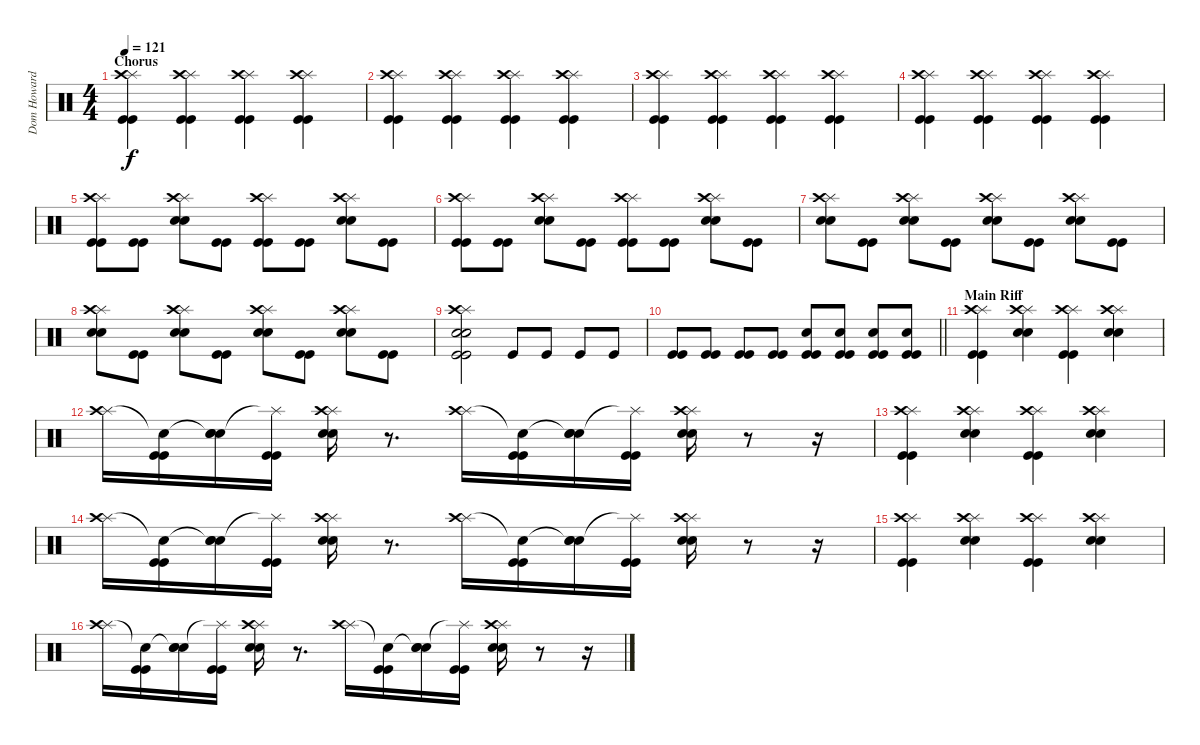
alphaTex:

\track ("Dom Howard - Drums" "Dom Howard") {instrument percussion}
\staff {score}
\articulation defaults
\ts (4 4)
\section ("" "Chorus")
\tempo 121
\clef neutral
\ks c
("Splash (hit)" "Crash high (hit)" "Kick (hit)" "Kick (hit)").4{dy f} ("Splash (hit)" "Crash high (hit)" "Kick (hit)" "Kick (hit)").4 ("Splash (hit)" "Crash high (hit)" "Kick (hit)" "Kick (hit)").4 ("Splash (hit)" "Crash high (hit)" "Kick (hit)" "Kick (hit)").4 |
("Splash (hit)" "Crash high (hit)" "Kick (hit)" "Kick (hit)").4 ("Splash (hit)" "Crash high (hit)" "Kick (hit)" "Kick (hit)").4 ("Splash (hit)" "Crash high (hit)" "Kick (hit)" "Kick (hit)").4 ("Splash (hit)" "Crash high (hit)" "Kick (hit)" "Kick (hit)").4 |
("Splash (hit)" "Crash high (hit)" "Kick (hit)" "Kick (hit)").4 ("Splash (hit)" "Crash high (hit)" "Kick (hit)" "Kick (hit)").4 ("Splash (hit)" "Crash high (hit)" "Kick (hit)" "Kick (hit)").4 ("Splash (hit)" "Crash high (hit)" "Kick (hit)" "Kick (hit)").4 |
("Splash (hit)" "Crash high (hit)" "Kick (hit)" "Kick (hit)").4 ("Splash (hit)" "Crash high (hit)" "Kick (hit)" "Kick (hit)").4 ("Splash (hit)" "Crash high (hit)" "Kick (hit)" "Kick (hit)").4 ("Splash (hit)" "Crash high (hit)" "Kick (hit)" "Kick (hit)").4 |
("Splash (hit)" "Crash high (hit)" "Kick (hit)" "Kick (hit)").8 ("Kick (hit)" "Kick (hit)").8 ("Splash (hit)" "Crash high (hit)" "Electric Snare (hit)" "Electric Snare (hit)").8 ("Kick (hit)" "Kick (hit)").8 ("Splash (hit)" "Crash high (hit)" "Kick (hit)" "Kick (hit)").8 ("Kick (hit)" "Kick (hit)").8 ("Splash (hit)" "Crash high (hit)" "Electric Snare (hit)" "Electric Snare (hit)").8 ("Kick (hit)" "Kick (hit)").8 |
("Splash (hit)" "Crash high (hit)" "Kick (hit)" "Kick (hit)").8 ("Kick (hit)" "Kick (hit)").8 ("Splash (hit)" "Crash high (hit)" "Electric Snare (hit)" "Electric Snare (hit)").8 ("Kick (hit)" "Kick (hit)").8 ("Splash (hit)" "Crash high (hit)" "Kick (hit)" "Kick (hit)").8 ("Kick (hit)" "Kick (hit)").8 ("Splash (hit)" "Crash high (hit)" "Electric Snare (hit)" "Electric Snare (hit)").8 ("Kick (hit)" "Kick (hit)").8 |
("Splash (hit)" "Crash high (hit)" "Electric Snare (hit)" "Electric Snare (hit)").8 ("Kick (hit)" "Kick (hit)").8 ("Splash (hit)" "Crash high (hit)" "Electric Snare (hit)" "Electric Snare (hit)").8 ("Kick (hit)" "Kick (hit)").8 ("Splash (hit)" "Crash high (hit)" "Electric Snare (hit)" "Electric Snare (hit)").8 ("Kick (hit)" "Kick (hit)").8 ("Splash (hit)" "Crash high (hit)" "Electric Snare (hit)" "Electric Snare (hit)").8 ("Kick (hit)" "Kick (hit)").8 |
("Splash (hit)" "Crash high (hit)" "Electric Snare (hit)" "Electric Snare (hit)").8 ("Kick (hit)" "Kick (hit)").8 ("Splash (hit)" "Crash high (hit)" "Electric Snare (hit)" "Electric Snare (hit)").8 ("Kick (hit)" "Kick (hit)").8 ("Splash (hit)" "Crash high (hit)" "Electric Snare (hit)" "Electric Snare (hit)").8 ("Kick (hit)" "Kick (hit)").8 ("Splash (hit)" "Crash high (hit)" "Electric Snare (hit)" "Electric Snare (hit)").8 ("Kick (hit)" "Kick (hit)").8 |
("Splash (hit)" "Crash high (hit)" "Electric Snare (hit)" "Electric Snare (hit)" "Kick (hit)" "Kick (hit)").2 "Kick (hit)".8 "Kick (hit)".8 "Kick (hit)".8 "Kick (hit)".8 |
\barLineRight lightlight
("Kick (hit)" "Kick (hit)").8 ("Kick (hit)" "Kick (hit)").8 ("Kick (hit)" "Kick (hit)").8 ("Kick (hit)" "Kick (hit)").8 ("Electric Snare (hit)" "Kick (hit)" "Kick (hit)").8 ("Electric Snare (hit)" "Kick (hit)" "Kick (hit)").8 ("Electric Snare (hit)" "Kick (hit)" "Kick (hit)").8 ("Electric Snare (hit)" "Kick (hit)" "Kick (hit)").8 |
\section ("" "Main Riff")
("Splash (hit)" "Crash high (hit)" "Kick (hit)" "Kick (hit)").4 ("Splash (hit)" "Crash high (hit)" "Electric Snare (hit)" "Electric Snare (hit)").4 ("Splash (hit)" "Crash high (hit)" "Kick (hit)" "Kick (hit)").4 ("Splash (hit)" "Crash high (hit)" "Electric Snare (hit)" "Electric Snare (hit)").4 |
("Splash (hit)" "Crash high (hit)").16 ("Snare (hit)"{t} "Kick (hit)" "Kick (hit)").16 ("Snare (hit)"{t} "Electric Snare (hit)" "Electric Snare (hit)").16 ("Splash (hit)"{t} "Kick (hit)" "Kick (hit)").16 ("Splash (hit)" "Crash high (hit)" "Electric Snare (hit)" "Electric Snare (hit)").16 r.8{d} ("Splash (hit)" "Crash high (hit)").16 ("Snare (hit)"{t} "Kick (hit)" "Kick (hit)").16 ("Snare (hit)"{t} "Electric Snare (hit)" "Electric Snare (hit)").16 ("Splash (hit)"{t} "Kick (hit)" "Kick (hit)").16 ("Splash (hit)" "Crash high (hit)" "Electric Snare (hit)" "Electric Snare (hit)").16 r.8 r.16 |
("Splash (hit)" "Crash high (hit)" "Kick (hit)" "Kick (hit)").4 ("Splash (hit)" "Crash high (hit)" "Electric Snare (hit)" "Electric Snare (hit)").4 ("Splash (hit)" "Crash high (hit)" "Kick (hit)" "Kick (hit)").4 ("Splash (hit)" "Crash high (hit)" "Electric Snare (hit)" "Electric Snare (hit)").4 |
("Splash (hit)" "Crash high (hit)").16 ("Snare (hit)"{t} "Kick (hit)" "Kick (hit)").16 ("Snare (hit)"{t} "Electric Snare (hit)" "Electric Snare (hit)").16 ("Splash (hit)"{t} "Kick (hit)" "Kick (hit)").16 ("Splash (hit)" "Crash high (hit)" "Electric Snare (hit)" "Electric Snare (hit)").16 r.8{d} ("Splash (hit)" "Crash high (hit)").16 ("Snare (hit)"{t} "Kick (hit)" "Kick (hit)").16 ("Snare (hit)"{t} "Electric Snare (hit)" "Electric Snare (hit)").16 ("Splash (hit)"{t} "Kick (hit)" "Kick (hit)").16 ("Splash (hit)" "Crash high (hit)" "Electric Snare (hit)" "Electric Snare (hit)").16 r.8 r.16 |
("Splash (hit)" "Crash high (hit)" "Kick (hit)" "Kick (hit)").4 ("Splash (hit)" "Crash high (hit)" "Electric Snare (hit)" "Electric Snare (hit)").4 ("Splash (hit)" "Crash high (hit)" "Kick (hit)" "Kick (hit)").4 ("Splash (hit)" "Crash high (hit)" "Electric Snare (hit)" "Electric Snare (hit)").4 |
("Splash (hit)" "Crash high (hit)").16 ("Snare (hit)"{t} "Kick (hit)" "Kick (hit)").16 ("Snare (hit)"{t} "Electric Snare (hit)" "Electric Snare (hit)").16 ("Splash (hit)"{t} "Kick (hit)" "Kick (hit)").16 ("Splash (hit)" "Crash high (hit)" "Electric Snare (hit)" "Electric Snare (hit)").16 r.8{d} ("Splash (hit)" "Crash high (hit)").16 ("Snare (hit)"{t} "Kick (hit)" "Kick (hit)").16 ("Snare (hit)"{t} "Electric Snare (hit)" "Electric Snare (hit)").16 ("Splash (hit)"{t} "Kick (hit)" "Kick (hit)").16 ("Splash (hit)" "Crash high (hit)" "Electric Snare (hit)" "Electric Snare (hit)").16 r.8 r.16
